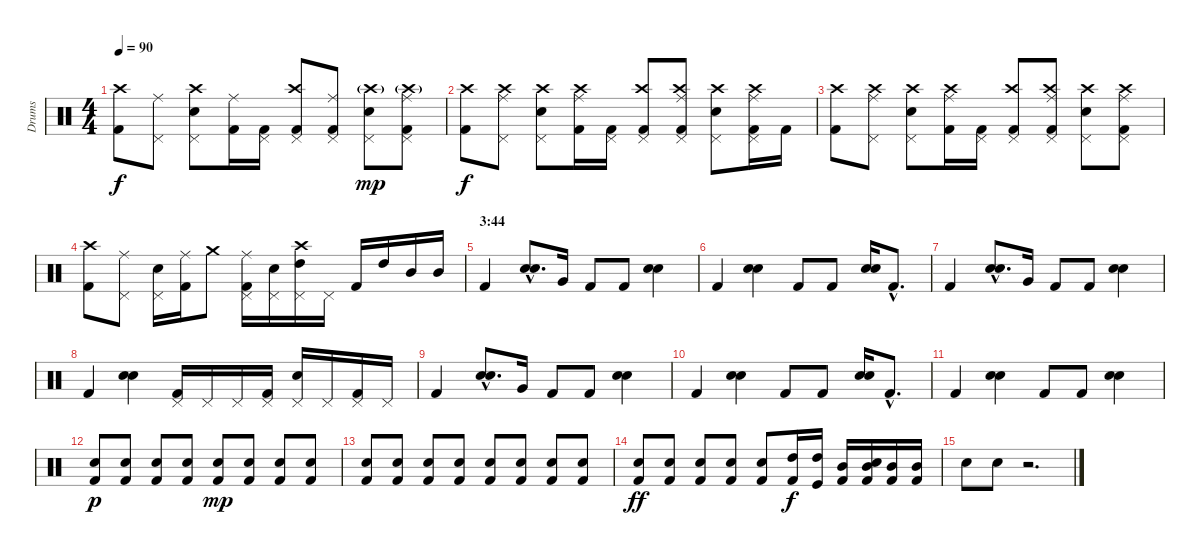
\track ("Drums" "Drums") {instrument percussion}
\staff {score}
\articulation defaults
\ts (4 4)
\tempo 90
\clef neutral
\ks c
("Kick (hit) 2" "Crash high (hit)").8{dy f} ("Pedal Hi-Hat (hit)" "Ride (middle)").8 ("Snare (hit) 2" "Pedal Hi-Hat (hit)" "Crash high (hit)").8 ("Kick (hit) 2" "Ride (middle)").16 ("Kick (hit) 2" "Pedal Hi-Hat (hit)").16 ("Kick (hit) 2" "Pedal Hi-Hat (hit)" "Crash high (hit)").8 ("Kick (hit) 2" "Pedal Hi-Hat (hit)" "Ride (middle)").8 ("Snare (hit) 2" "Pedal Hi-Hat (hit)" "Crash high (hit)"{g}).8{dy mp} ("Kick (hit) 2" "Pedal Hi-Hat (hit)" "Crash high (hit)"{g} "Ride (middle)").8 |
("Kick (hit) 2" "Crash high (hit)").8{dy f} ("Pedal Hi-Hat (hit)" "Crash high (hit)" "Ride (middle)").8 ("Snare (hit) 2" "Pedal Hi-Hat (hit)" "Crash high (hit)").8 ("Kick (hit) 2" "Crash high (hit)" "Ride (middle)").16 ("Kick (hit) 2" "Pedal Hi-Hat (hit)").16 ("Kick (hit) 2" "Pedal Hi-Hat (hit)" "Crash high (hit)").8 ("Kick (hit) 2" "Pedal Hi-Hat (hit)" "Crash high (hit)" "Ride (middle)").8 ("Snare (hit) 2" "Pedal Hi-Hat (hit)" "Crash high (hit)").8 ("Kick (hit) 2" "Pedal Hi-Hat (hit)" "Crash high (hit)" "Ride (middle)").16 "Kick (hit) 2".16 |
("Kick (hit) 2" "Crash high (hit)").8 ("Pedal Hi-Hat (hit)" "Crash high (hit)" "Ride (middle)").8 ("Snare (hit) 2" "Pedal Hi-Hat (hit)" "Crash high (hit)").8 ("Kick (hit) 2" "Crash high (hit)" "Ride (middle)").16 ("Kick (hit) 2" "Pedal Hi-Hat (hit)").16 ("Kick (hit) 2" "Pedal Hi-Hat (hit)" "Crash high (hit)").8 ("Kick (hit) 2" "Pedal Hi-Hat (hit)" "Crash high (hit)" "Ride (middle)").8 ("Snare (hit) 2" "Pedal Hi-Hat (hit)" "Crash high (hit)").8 ("Kick (hit) 2" "Pedal Hi-Hat (hit)" "Crash high (hit)" "Ride (middle)").8 |
("Kick (hit) 2" "Crash high (hit)").8 ("Pedal Hi-Hat (hit)" "Ride (middle)").8 ("Snare (hit) 2" "Pedal Hi-Hat (hit)").16 ("Kick (hit) 2" "Ride (middle)").16 "Crash medium (hit)".8 ("Kick (hit) 2" "Pedal Hi-Hat (hit)" "Ride (middle)").16 ("Snare (hit) 2" "Pedal Hi-Hat (hit)").16 ("High Tom (hit)" "Pedal Hi-Hat (hit)" "Crash high (hit)").16 "Pedal Hi-Hat (hit)".16 "Kick (hit) 2".16 "High Tom (hit)".16 "Mid Tom (hit)".16 "Mid Tom (hit)".16 |
\section ("" "3:44")
"Kick (hit) 2".4 ("Hand Clap (hit)"{hac} "Snare (hit) 2"{hac}).8{d} "Very Low Tom (hit)".16 "Kick (hit) 2".8 "Kick (hit) 2".8 ("Hand Clap (hit)" "Snare (hit) 2").4 |
"Kick (hit) 2".4 ("Hand Clap (hit)" "Snare (hit) 2").4 "Kick (hit) 2".8 "Kick (hit) 2".8 ("Hand Clap (hit)" "Snare (hit) 2").16 "Kick (hit) 2"{hac}.8{d} |
"Kick (hit) 2".4 ("Hand Clap (hit)"{hac} "Snare (hit) 2"{hac}).8{d} "Very Low Tom (hit)".16 "Kick (hit) 2".8 "Kick (hit) 2".8 ("Hand Clap (hit)" "Snare (hit) 2").4 |
"Kick (hit) 2".4 ("Hand Clap (hit)" "Snare (hit) 2").4 ("Kick (hit) 2" "Pedal Hi-Hat (hit)").16 "Pedal Hi-Hat (hit)".16 "Pedal Hi-Hat (hit)".16 ("Kick (hit) 2" "Pedal Hi-Hat (hit)").16 ("Snare (hit) 2" "Pedal Hi-Hat (hit)").16 "Pedal Hi-Hat (hit)".16 ("Kick (hit) 2" "Pedal Hi-Hat (hit)").16 "Pedal Hi-Hat (hit)".16 |
"Kick (hit) 2".4 ("Hand Clap (hit)"{hac} "Snare (hit) 2"{hac}).8{d} "Very Low Tom (hit)".16 "Kick (hit) 2".8 "Kick (hit) 2".8 ("Hand Clap (hit)" "Snare (hit) 2").4 |
"Kick (hit) 2".4 ("Hand Clap (hit)" "Snare (hit) 2").4 "Kick (hit) 2".8 "Kick (hit) 2".8 ("Hand Clap (hit)" "Snare (hit) 2").16 "Kick (hit) 2"{hac}.8{d} |
"Kick (hit) 2".4 ("Hand Clap (hit)" "Snare (hit) 2").4 "Kick (hit) 2".8 "Kick (hit) 2".8 ("Hand Clap (hit)" "Snare (hit) 2").4 |
("Kick (hit) 2" "Snare (hit) 2").8{dy p} ("Kick (hit) 2" "Snare (hit) 2").8 ("Kick (hit) 2" "Snare (hit) 2").8 ("Kick (hit) 2" "Snare (hit) 2").8 ("Kick (hit) 2" "Snare (hit) 2").8{dy mp} ("Kick (hit) 2" "Snare (hit) 2").8 ("Kick (hit) 2" "Snare (hit) 2").8 ("Kick (hit) 2" "Snare (hit) 2").8 |
("Kick (hit) 2" "Snare (hit) 2").8 ("Kick (hit) 2" "Snare (hit) 2").8 ("Kick (hit) 2" "Snare (hit) 2").8 ("Kick (hit) 2" "Snare (hit) 2").8 ("Kick (hit) 2" "Snare (hit) 2").8 ("Kick (hit) 2" "Snare (hit) 2").8 ("Kick (hit) 2" "Snare (hit) 2").8 ("Kick (hit) 2" "Snare (hit) 2").8 |
("Kick (hit) 2" "Snare (hit) 2").8{dy ff} ("Kick (hit) 2" "Snare (hit) 2").8 ("Kick (hit) 2" "Snare (hit) 2").8 ("Kick (hit) 2" "Snare (hit) 2").8 ("Kick (hit) 2" "Snare (hit) 2").8 ("Kick (hit) 2" "High Tom (hit)").16{dy f} ("Kick (hit)" "High Tom (hit)").16 ("Kick (hit) 2" "Mid Tom (hit)").16 ("Kick (hit) 2" "Snare (hit) 2" "Mid Tom (hit)").16 ("Kick (hit) 2" "Mid Tom (hit)").16 ("Kick (hit) 2" "Mid Tom (hit)").16 |
"Snare (hit) 2".8 "Snare (hit) 2".8 r.2{d}
